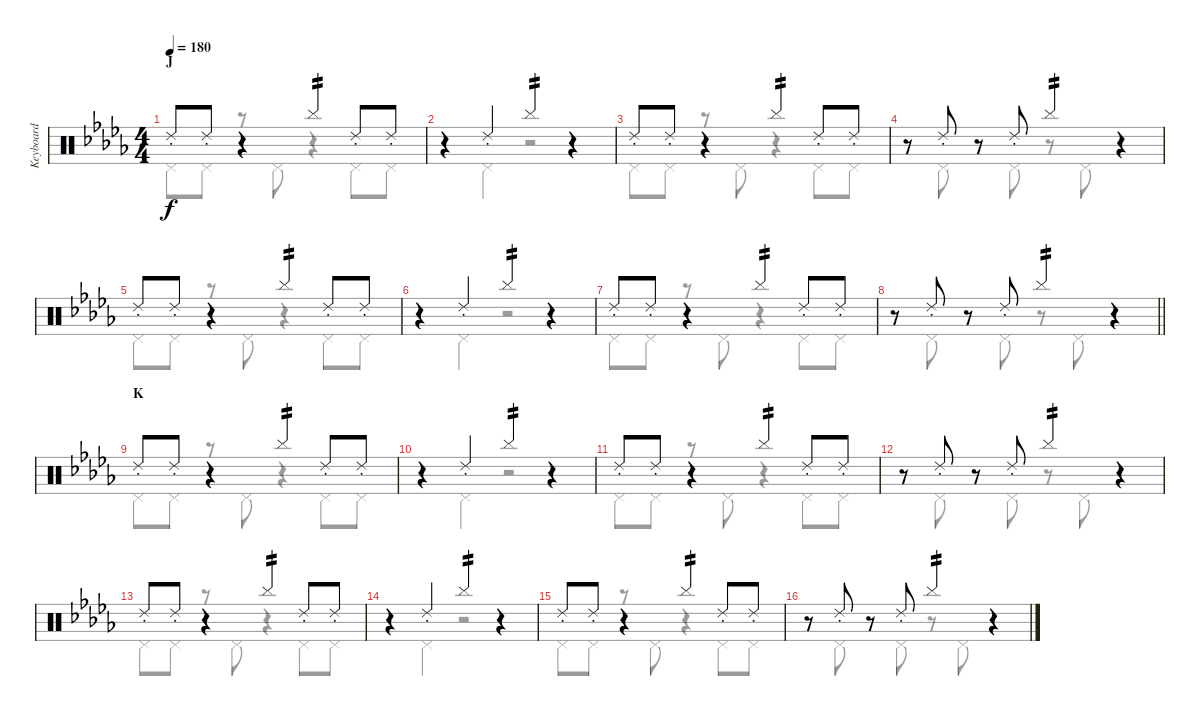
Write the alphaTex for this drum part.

\track ("Keyboard" "Keyboard") {instrument percussion}
\staff {score}
\articulation defaults
\voice
\ts (4 4)
\section ("" "J")
\tempo 180
\clef neutral
\ks db "Ride (choke) 2".8{dy f} "Ride (choke) 2".8
r.4 "Cymbal (hit)".4{tp 2} "Ride (choke) 2".8 "Ride (choke) 2".8 |
r.4 "Ride (choke) 2".4 "Cymbal (hit)".4{tp 2} r.4 |
"Ride (choke) 2".8 "Ride (choke) 2".8 r.4 "Cymbal (hit)".4{tp 2} "Ride (choke) 2".8 "Ride (choke) 2".8 |
r.8 "Ride (choke) 2".8 r.8 "Ride (choke) 2".8 "Cymbal (hit)".4{tp 2} r.4 |
"Ride (choke) 2".8 "Ride (choke) 2".8 r.4 "Cymbal (hit)".4{tp 2} "Ride (choke) 2".8 "Ride (choke) 2".8 |
r.4 "Ride (choke) 2".4 "Cymbal (hit)".4{tp 2} r.4 |
"Ride (choke) 2".8 "Ride (choke) 2".8 r.4 "Cymbal (hit)".4{tp 2} "Ride (choke) 2".8 "Ride (choke) 2".8 |
\barLineRight lightlight
r.8 "Ride (choke) 2".8 r.8 "Ride (choke) 2".8 "Cymbal (hit)".4{tp 2} r.4 |
\section ("" "K")
"Ride (choke) 2".8 "Ride (choke) 2".8 r.4 "Cymbal (hit)".4{tp 2} "Ride (choke) 2".8 "Ride (choke) 2".8 |
r.4 "Ride (choke) 2".4 "Cymbal (hit)".4{tp 2} r.4 |
"Ride (choke) 2".8 "Ride (choke) 2".8 r.4 "Cymbal (hit)".4{tp 2} "Ride (choke) 2".8 "Ride (choke) 2".8 |
r.8 "Ride (choke) 2".8 r.8 "Ride (choke) 2".8 "Cymbal (hit)".4{tp 2} r.4 |
"Ride (choke) 2".8 "Ride (choke) 2".8 r.4 "Cymbal (hit)".4{tp 2} "Ride (choke) 2".8 "Ride (choke) 2".8 |
r.4 "Ride (choke) 2".4 "Cymbal (hit)".4{tp 2} r.4 |
"Ride (choke) 2".8 "Ride (choke) 2".8 r.4 "Cymbal (hit)".4{tp 2} "Ride (choke) 2".8 "Ride (choke) 2".8 |
r.8 "Ride (choke) 2".8 r.8 "Ride (choke) 2".8 "Cymbal (hit)".4{tp 2} r.4
\voice
\clef neutral
\ottava regular
\simile none
\ks db "Pedal Hi-Hat (hit)".8{dy f} "Pedal Hi-Hat (hit)".8
r.8 "Pedal Hi-Hat (hit)".8 r.4 "Pedal Hi-Hat (hit)".8 "Pedal Hi-Hat (hit)".8 |
r.4 "Pedal Hi-Hat (hit)".4 r.2 |
"Pedal Hi-Hat (hit)".8 "Pedal Hi-Hat (hit)".8 r.8 "Pedal Hi-Hat (hit)".8 r.4 "Pedal Hi-Hat (hit)".8 "Pedal Hi-Hat (hit)".8 |
r.8 "Pedal Hi-Hat (hit)".8 r.8 "Pedal Hi-Hat (hit)".8 r.8 "Pedal Hi-Hat (hit)".8 r.4 |
"Pedal Hi-Hat (hit)".8 "Pedal Hi-Hat (hit)".8 r.8 "Pedal Hi-Hat (hit)".8 r.4 "Pedal Hi-Hat (hit)".8 "Pedal Hi-Hat (hit)".8 |
r.4 "Pedal Hi-Hat (hit)".4 r.2 |
"Pedal Hi-Hat (hit)".8 "Pedal Hi-Hat (hit)".8 r.8 "Pedal Hi-Hat (hit)".8 r.4 "Pedal Hi-Hat (hit)".8 "Pedal Hi-Hat (hit)".8 |
\barLineRight lightlight
r.8 "Pedal Hi-Hat (hit)".8 r.8 "Pedal Hi-Hat (hit)".8 r.8 "Pedal Hi-Hat (hit)".8 r.4 |
"Pedal Hi-Hat (hit)".8 "Pedal Hi-Hat (hit)".8 r.8 "Pedal Hi-Hat (hit)".8 r.4 "Pedal Hi-Hat (hit)".8 "Pedal Hi-Hat (hit)".8 |
r.4 "Pedal Hi-Hat (hit)".4 r.2 |
"Pedal Hi-Hat (hit)".8 "Pedal Hi-Hat (hit)".8 r.8 "Pedal Hi-Hat (hit)".8 r.4 "Pedal Hi-Hat (hit)".8 "Pedal Hi-Hat (hit)".8 |
r.8 "Pedal Hi-Hat (hit)".8 r.8 "Pedal Hi-Hat (hit)".8 r.8 "Pedal Hi-Hat (hit)".8 r.4 |
"Pedal Hi-Hat (hit)".8 "Pedal Hi-Hat (hit)".8 r.8 "Pedal Hi-Hat (hit)".8 r.4 "Pedal Hi-Hat (hit)".8 "Pedal Hi-Hat (hit)".8 |
r.4 "Pedal Hi-Hat (hit)".4 r.2 |
"Pedal Hi-Hat (hit)".8 "Pedal Hi-Hat (hit)".8 r.8 "Pedal Hi-Hat (hit)".8 r.4 "Pedal Hi-Hat (hit)".8 "Pedal Hi-Hat (hit)".8 |
r.8 "Pedal Hi-Hat (hit)".8 r.8 "Pedal Hi-Hat (hit)".8 r.8 "Pedal Hi-Hat (hit)".8 r.4
